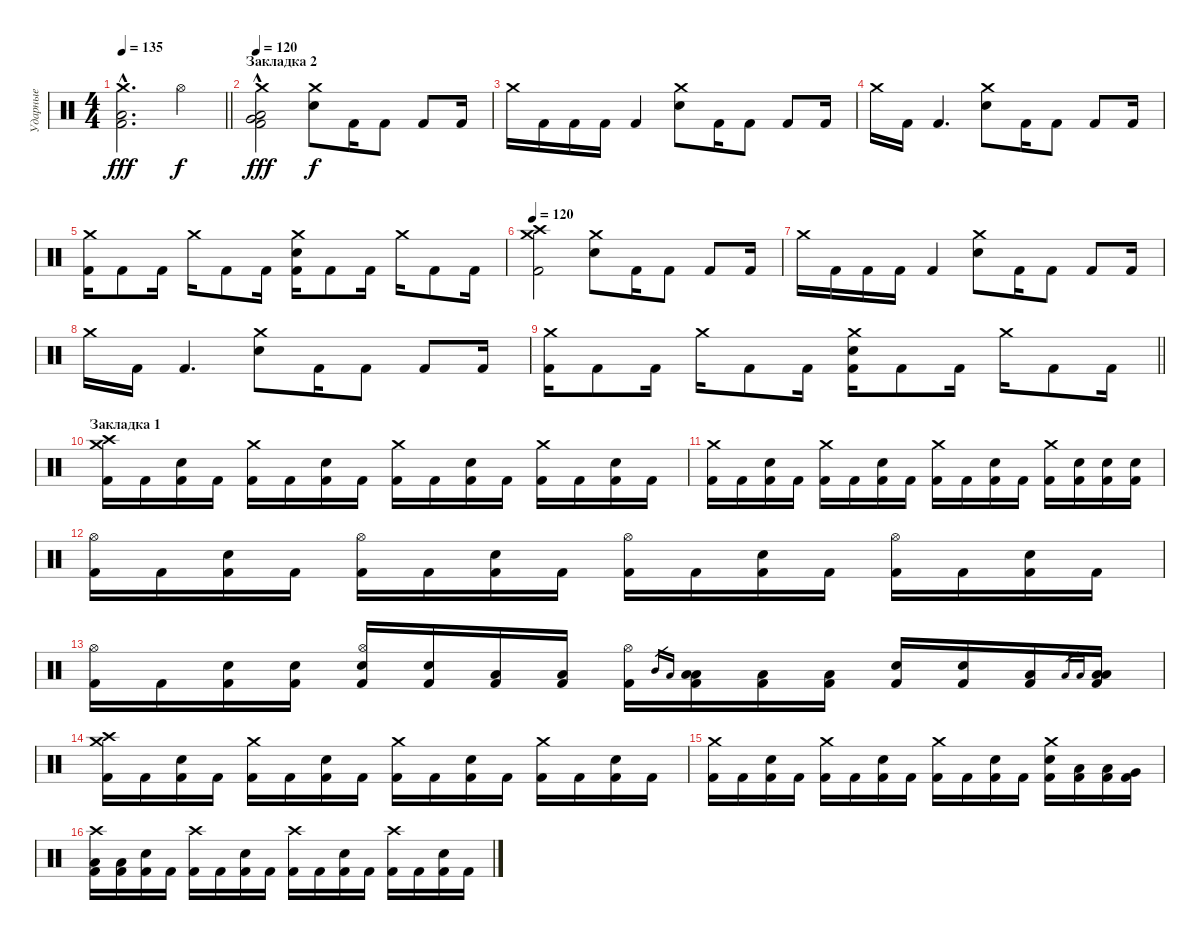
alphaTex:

\track ("Ударные" "Ударные") {instrument percussion}
\staff {score}
\articulation defaults
\ts (4 4)
\tempo 135
\clef neutral
\barLineRight lightlight
\ks c
("Crash medium (hit)" "Low Floor Tom (hit)"{hac} "Kick (hit) 2"{hac}).2{d dy fff} "Hi-Hat (open)".4{dy f} |
\section ("" "Закладка 2")
\tempo 120
("Crash medium (hit)" "Very Low Tom (hit)"{hac} "Low Floor Tom (hit)"{hac} "Kick (hit) 2"{hac}).2{dy fff} ("Crash medium (hit)" "Electric Snare (hit)").8{dy f} "Kick (hit) 2".16 "Kick (hit) 2".8 "Kick (hit) 2".8 "Kick (hit) 2".16 |
"Crash medium (hit)".16 "Kick (hit) 2".16 "Kick (hit) 2".16 "Kick (hit) 2".16 "Kick (hit) 2".4 ("Crash medium (hit)" "Electric Snare (hit)").8 "Kick (hit) 2".16 "Kick (hit) 2".8 "Kick (hit) 2".8 "Kick (hit) 2".16 |
"Crash medium (hit)".16 "Kick (hit) 2".16 "Kick (hit) 2".4{d} ("Crash medium (hit)" "Electric Snare (hit)").8 "Kick (hit) 2".16 "Kick (hit) 2".8 "Kick (hit) 2".8 "Kick (hit) 2".16 |
("Crash medium (hit)" "Kick (hit) 2").16 "Kick (hit) 2".8 "Kick (hit) 2".16 "Crash medium (hit)".16 "Kick (hit) 2".8 "Kick (hit) 2".16 ("Crash medium (hit)" "Electric Snare (hit)" "Kick (hit) 2").16 "Kick (hit) 2".8 "Kick (hit) 2".16 "Crash medium (hit)".16 "Kick (hit) 2".8 "Kick (hit) 2".16 |
\tempo 120
("Crash medium (hit)" "Crash high (hit)" "Kick (hit) 2").2 ("Crash medium (hit)" "Electric Snare (hit)").8 "Kick (hit) 2".16 "Kick (hit) 2".8 "Kick (hit) 2".8 "Kick (hit) 2".16 |
"Crash medium (hit)".16 "Kick (hit) 2".16 "Kick (hit) 2".16 "Kick (hit) 2".16 "Kick (hit) 2".4 ("Crash medium (hit)" "Electric Snare (hit)").8 "Kick (hit) 2".16 "Kick (hit) 2".8 "Kick (hit) 2".8 "Kick (hit) 2".16 |
"Crash medium (hit)".16 "Kick (hit) 2".16 "Kick (hit) 2".4{d} ("Crash medium (hit)" "Electric Snare (hit)").8 "Kick (hit) 2".16 "Kick (hit) 2".8 "Kick (hit) 2".8 "Kick (hit) 2".16 |
\barLineRight lightlight
("Crash medium (hit)" "Kick (hit) 2").16 "Kick (hit) 2".8 "Kick (hit) 2".16 "Crash medium (hit)".16 "Kick (hit) 2".8 "Kick (hit) 2".16 ("Crash medium (hit)" "Electric Snare (hit)" "Kick (hit) 2").16 "Kick (hit) 2".8 "Kick (hit) 2".16 "Crash medium (hit)".16 "Kick (hit) 2".8 "Kick (hit) 2".16 |
\section ("" "Закладка 1")
("Crash medium (hit)" "Crash high (hit)" "Kick (hit) 2").16 "Kick (hit) 2".16 ("Electric Snare (hit)" "Kick (hit) 2").16 "Kick (hit) 2".16 ("Crash medium (hit)" "Kick (hit) 2").16 "Kick (hit) 2".16 ("Electric Snare (hit)" "Kick (hit) 2").16 "Kick (hit) 2".16 ("Crash medium (hit)" "Kick (hit) 2").16 "Kick (hit) 2".16 ("Electric Snare (hit)" "Kick (hit) 2").16 "Kick (hit) 2".16 ("Crash medium (hit)" "Kick (hit) 2").16 "Kick (hit) 2".16 ("Electric Snare (hit)" "Kick (hit) 2").16 "Kick (hit) 2".16 |
("Crash medium (hit)" "Kick (hit) 2").16 "Kick (hit) 2".16 ("Electric Snare (hit)" "Kick (hit) 2").16 "Kick (hit) 2".16 ("Crash medium (hit)" "Kick (hit) 2").16 "Kick (hit) 2".16 ("Electric Snare (hit)" "Kick (hit) 2").16 "Kick (hit) 2".16 ("Crash medium (hit)" "Kick (hit) 2").16 "Kick (hit) 2".16 ("Electric Snare (hit)" "Kick (hit) 2").16 "Kick (hit) 2".16 ("Crash medium (hit)" "Kick (hit) 2").16 ("Electric Snare (hit)" "Kick (hit) 2").16 ("Electric Snare (hit)" "Kick (hit) 2").16 ("Electric Snare (hit)" "Kick (hit) 2").16 |
("Hi-Hat (open)" "Kick (hit) 2").16 "Kick (hit) 2".16 ("Electric Snare (hit)" "Kick (hit) 2").16 "Kick (hit) 2".16 ("Hi-Hat (open)" "Kick (hit) 2").16 "Kick (hit) 2".16 ("Electric Snare (hit)" "Kick (hit) 2").16 "Kick (hit) 2".16 ("Hi-Hat (open)" "Kick (hit) 2").16 "Kick (hit) 2".16 ("Electric Snare (hit)" "Kick (hit) 2").16 "Kick (hit) 2".16 ("Hi-Hat (open)" "Kick (hit) 2").16 "Kick (hit) 2".16 ("Electric Snare (hit)" "Kick (hit) 2").16 "Kick (hit) 2".16 |
("Hi-Hat (open)" "Kick (hit) 2").16 "Kick (hit) 2".16 ("Electric Snare (hit)" "Kick (hit) 2").16 ("Electric Snare (hit)" "Kick (hit) 2").16 ("Hi-Hat (open)" "Electric Snare (hit)" "Kick (hit) 2").16 ("Electric Snare (hit)" "Kick (hit) 2").16 ("Low Tom (hit)" "Kick (hit) 2").16 ("Low Tom (hit)" "Kick (hit) 2").16 ("Hi-Hat (open)" "Kick (hit) 2").16 "Mid Tom (hit)".16{gr} "Low Tom (hit)".16{gr} ("Low Tom (hit)" "Low Tom (hit)" "Kick (hit) 2").16 ("Low Tom (hit)" "Kick (hit) 2").16 ("Low Tom (hit)" "Kick (hit) 2").16 ("Electric Snare (hit)" "Kick (hit) 2").16 ("Electric Snare (hit)" "Kick (hit) 2").16 ("Low Floor Tom (hit)" "Kick (hit) 2").16 "Low Floor Tom (hit)".16{gr} "Low Floor Tom (hit)".16{gr} ("Low Floor Tom (hit)" "Low Floor Tom (hit)" "Kick (hit) 2").16 |
("Crash medium (hit)" "Crash high (hit)" "Kick (hit) 2").16 "Kick (hit) 2".16 ("Electric Snare (hit)" "Kick (hit) 2").16 "Kick (hit) 2".16 ("Crash medium (hit)" "Kick (hit) 2").16 "Kick (hit) 2".16 ("Electric Snare (hit)" "Kick (hit) 2").16 "Kick (hit) 2".16 ("Crash medium (hit)" "Kick (hit) 2").16 "Kick (hit) 2".16 ("Electric Snare (hit)" "Kick (hit) 2").16 "Kick (hit) 2".16 ("Crash medium (hit)" "Kick (hit) 2").16 "Kick (hit) 2".16 ("Electric Snare (hit)" "Kick (hit) 2").16 "Kick (hit) 2".16 |
("Crash medium (hit)" "Kick (hit) 2").16 "Kick (hit) 2".16 ("Electric Snare (hit)" "Kick (hit) 2").16 "Kick (hit) 2".16 ("Crash medium (hit)" "Kick (hit) 2").16 "Kick (hit) 2".16 ("Electric Snare (hit)" "Kick (hit) 2").16 "Kick (hit) 2".16 ("Crash medium (hit)" "Kick (hit) 2").16 "Kick (hit) 2".16 ("Electric Snare (hit)" "Kick (hit) 2").16 "Kick (hit) 2".16 ("Crash medium (hit)" "Electric Snare (hit)" "Kick (hit) 2").16 ("Low Tom (hit)" "Kick (hit) 2").16 ("Low Tom (hit)" "Kick (hit) 2").16 ("Very Low Tom (hit)" "Kick (hit) 2").16 |
("Crash high (hit)" "Low Floor Tom (hit)" "Kick (hit) 2").16 ("Low Floor Tom (hit)" "Kick (hit) 2").16 ("Electric Snare (hit)" "Kick (hit) 2").16 "Kick (hit) 2".16 ("Crash high (hit)" "Kick (hit) 2").16 "Kick (hit) 2".16 ("Electric Snare (hit)" "Kick (hit) 2").16 "Kick (hit) 2".16 ("Crash high (hit)" "Kick (hit) 2").16 "Kick (hit) 2".16 ("Electric Snare (hit)" "Kick (hit) 2").16 "Kick (hit) 2".16 ("Crash high (hit)" "Kick (hit) 2").16 "Kick (hit) 2".16 ("Electric Snare (hit)" "Kick (hit) 2").16 "Kick (hit) 2".16
